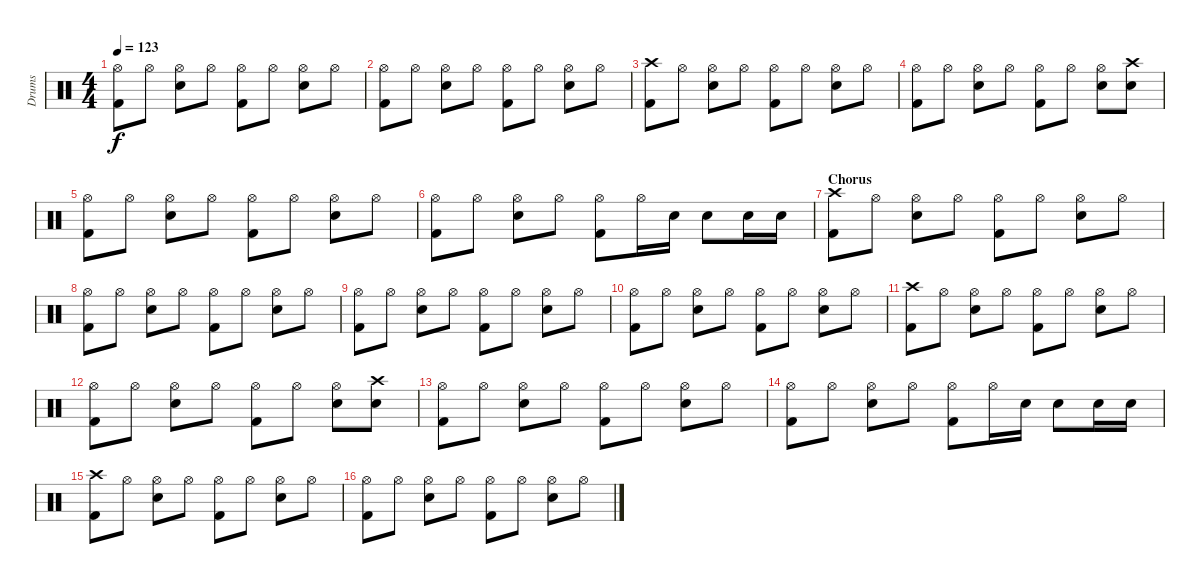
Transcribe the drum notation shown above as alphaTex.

\track ("Drums" "Drums") {instrument percussion}
\staff {score}
\articulation defaults
\ts (4 4)
\tempo 123
\clef neutral
\ks c
("Hi-Hat (open)" "Kick (hit) 2").8{dy f} "Hi-Hat (open)".8 ("Hi-Hat (open)" "Electric Snare (hit)").8 "Hi-Hat (open)".8 ("Hi-Hat (open)" "Kick (hit) 2").8 "Hi-Hat (open)".8 ("Hi-Hat (open)" "Electric Snare (hit)").8 "Hi-Hat (open)".8 |
("Hi-Hat (open)" "Kick (hit) 2").8 "Hi-Hat (open)".8 ("Hi-Hat (open)" "Electric Snare (hit)").8 "Hi-Hat (open)".8 ("Hi-Hat (open)" "Kick (hit) 2").8 "Hi-Hat (open)".8 ("Hi-Hat (open)" "Electric Snare (hit)").8 "Hi-Hat (open)".8 |
("Crash high (hit)" "Kick (hit) 2").8 "Hi-Hat (open)".8 ("Hi-Hat (open)" "Electric Snare (hit)").8 "Hi-Hat (open)".8 ("Hi-Hat (open)" "Kick (hit) 2").8 "Hi-Hat (open)".8 ("Hi-Hat (open)" "Electric Snare (hit)").8 "Hi-Hat (open)".8 |
("Hi-Hat (open)" "Kick (hit) 2").8 "Hi-Hat (open)".8 ("Hi-Hat (open)" "Electric Snare (hit)").8 "Hi-Hat (open)".8 ("Hi-Hat (open)" "Kick (hit) 2").8 "Hi-Hat (open)".8 ("Hi-Hat (open)" "Electric Snare (hit)").8 ("Crash high (hit)" "Electric Snare (hit)").8 |
("Hi-Hat (open)" "Kick (hit) 2").8 "Hi-Hat (open)".8 ("Hi-Hat (open)" "Electric Snare (hit)").8 "Hi-Hat (open)".8 ("Hi-Hat (open)" "Kick (hit) 2").8 "Hi-Hat (open)".8 ("Hi-Hat (open)" "Electric Snare (hit)").8 "Hi-Hat (open)".8 |
("Hi-Hat (open)" "Kick (hit) 2").8 "Hi-Hat (open)".8 ("Hi-Hat (open)" "Electric Snare (hit)").8 "Hi-Hat (open)".8 ("Hi-Hat (open)" "Kick (hit) 2").8 "Hi-Hat (open)".16 "Electric Snare (hit)".16 "Electric Snare (hit)".8 "Electric Snare (hit)".16 "Electric Snare (hit)".16 |
\section ("" "Chorus")
("Crash high (hit)" "Kick (hit) 2").8 "Hi-Hat (open)".8 ("Hi-Hat (open)" "Electric Snare (hit)").8 "Hi-Hat (open)".8 ("Hi-Hat (open)" "Kick (hit) 2").8 "Hi-Hat (open)".8 ("Hi-Hat (open)" "Electric Snare (hit)").8 "Hi-Hat (open)".8 |
("Hi-Hat (open)" "Kick (hit) 2").8 "Hi-Hat (open)".8 ("Hi-Hat (open)" "Electric Snare (hit)").8 "Hi-Hat (open)".8 ("Hi-Hat (open)" "Kick (hit) 2").8 "Hi-Hat (open)".8 ("Hi-Hat (open)" "Electric Snare (hit)").8 "Hi-Hat (open)".8 |
("Hi-Hat (open)" "Kick (hit) 2").8 "Hi-Hat (open)".8 ("Hi-Hat (open)" "Electric Snare (hit)").8 "Hi-Hat (open)".8 ("Hi-Hat (open)" "Kick (hit) 2").8 "Hi-Hat (open)".8 ("Hi-Hat (open)" "Electric Snare (hit)").8 "Hi-Hat (open)".8 |
("Hi-Hat (open)" "Kick (hit) 2").8 "Hi-Hat (open)".8 ("Hi-Hat (open)" "Electric Snare (hit)").8 "Hi-Hat (open)".8 ("Hi-Hat (open)" "Kick (hit) 2").8 "Hi-Hat (open)".8 ("Hi-Hat (open)" "Electric Snare (hit)").8 "Hi-Hat (open)".8 |
("Crash high (hit)" "Kick (hit) 2").8 "Hi-Hat (open)".8 ("Hi-Hat (open)" "Electric Snare (hit)").8 "Hi-Hat (open)".8 ("Hi-Hat (open)" "Kick (hit) 2").8 "Hi-Hat (open)".8 ("Hi-Hat (open)" "Electric Snare (hit)").8 "Hi-Hat (open)".8 |
("Hi-Hat (open)" "Kick (hit) 2").8 "Hi-Hat (open)".8 ("Hi-Hat (open)" "Electric Snare (hit)").8 "Hi-Hat (open)".8 ("Hi-Hat (open)" "Kick (hit) 2").8 "Hi-Hat (open)".8 ("Hi-Hat (open)" "Electric Snare (hit)").8 ("Crash high (hit)" "Electric Snare (hit)").8 |
("Hi-Hat (open)" "Kick (hit) 2").8 "Hi-Hat (open)".8 ("Hi-Hat (open)" "Electric Snare (hit)").8 "Hi-Hat (open)".8 ("Hi-Hat (open)" "Kick (hit) 2").8 "Hi-Hat (open)".8 ("Hi-Hat (open)" "Electric Snare (hit)").8 "Hi-Hat (open)".8 |
("Hi-Hat (open)" "Kick (hit) 2").8 "Hi-Hat (open)".8 ("Hi-Hat (open)" "Electric Snare (hit)").8 "Hi-Hat (open)".8 ("Hi-Hat (open)" "Kick (hit) 2").8 "Hi-Hat (open)".16 "Electric Snare (hit)".16 "Electric Snare (hit)".8 "Electric Snare (hit)".16 "Electric Snare (hit)".16 |
("Crash high (hit)" "Kick (hit) 2").8 "Hi-Hat (open)".8 ("Hi-Hat (open)" "Electric Snare (hit)").8 "Hi-Hat (open)".8 ("Hi-Hat (open)" "Kick (hit) 2").8 "Hi-Hat (open)".8 ("Hi-Hat (open)" "Electric Snare (hit)").8 "Hi-Hat (open)".8 |
("Hi-Hat (open)" "Kick (hit) 2").8 "Hi-Hat (open)".8 ("Hi-Hat (open)" "Electric Snare (hit)").8 "Hi-Hat (open)".8 ("Hi-Hat (open)" "Kick (hit) 2").8 "Hi-Hat (open)".8 ("Hi-Hat (open)" "Electric Snare (hit)").8 "Hi-Hat (open)".8
